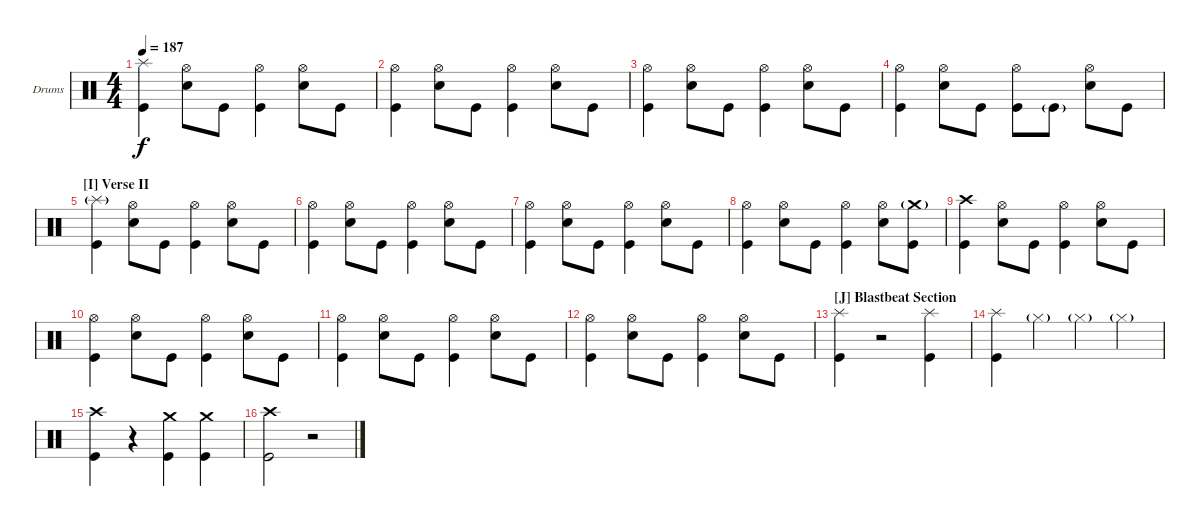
\defaultSystemsLayout 4
\bracketExtendMode groupsimilarinstruments
\firstSystemTrackNameOrientation horizontal
\otherSystemsTrackNameOrientation horizontal
\track ("Drumkit" "Drums") {instrument percussion}
\staff {score}
\articulation defaults
\ts (4 4)
\tempo 187
\clef neutral
\ks c
("Kick (hit)" "Splash (hit)").4{dy f} ("Snare (hit) 2" "Hi-Hat (open)").8 "Kick (hit)".8 ("Kick (hit)" "Hi-Hat (open)").4 ("Snare (hit) 2" "Hi-Hat (open)").8 "Kick (hit)".8 |
("Kick (hit)" "Hi-Hat (open)").4 ("Snare (hit) 2" "Hi-Hat (open)").8 "Kick (hit)".8 ("Kick (hit)" "Hi-Hat (open)").4 ("Snare (hit) 2" "Hi-Hat (open)").8 "Kick (hit)".8 |
("Kick (hit)" "Hi-Hat (open)").4 ("Snare (hit) 2" "Hi-Hat (open)").8 "Kick (hit)".8 ("Kick (hit)" "Hi-Hat (open)").4 ("Snare (hit) 2" "Hi-Hat (open)").8 "Kick (hit)".8 |
("Kick (hit)" "Hi-Hat (open)").4 ("Snare (hit) 2" "Hi-Hat (open)").8 "Kick (hit)".8 ("Kick (hit)" "Hi-Hat (open)").8 "Kick (hit)"{g}.8 ("Snare (hit) 2" "Hi-Hat (open)").8 "Kick (hit)".8 |
\section ("I" "Verse II")
("Kick (hit)" "Splash (hit)"{g}).4 ("Snare (hit) 2" "Hi-Hat (open)").8 "Kick (hit)".8 ("Kick (hit)" "Hi-Hat (open)").4 ("Snare (hit) 2" "Hi-Hat (open)").8 "Kick (hit)".8 |
("Kick (hit)" "Hi-Hat (open)").4 ("Snare (hit) 2" "Hi-Hat (open)").8 "Kick (hit)".8 ("Kick (hit)" "Hi-Hat (open)").4 ("Snare (hit) 2" "Hi-Hat (open)").8 "Kick (hit)".8 |
("Kick (hit)" "Hi-Hat (open)").4 ("Snare (hit) 2" "Hi-Hat (open)").8 "Kick (hit)".8 ("Kick (hit)" "Hi-Hat (open)").4 ("Snare (hit) 2" "Hi-Hat (open)").8 "Kick (hit)".8 |
("Kick (hit)" "Hi-Hat (open)").4 ("Snare (hit) 2" "Hi-Hat (open)").8 "Kick (hit)".8 ("Kick (hit)" "Hi-Hat (open)").4 ("Snare (hit) 2" "Hi-Hat (open)").8 ("Kick (hit)" "Crash medium (hit)"{g}).8 |
("Kick (hit)" "Crash high (hit)").4 ("Snare (hit) 2" "Hi-Hat (open)").8 "Kick (hit)".8 ("Kick (hit)" "Hi-Hat (open)").4 ("Snare (hit) 2" "Hi-Hat (open)").8 "Kick (hit)".8 |
("Kick (hit)" "Hi-Hat (open)").4 ("Snare (hit) 2" "Hi-Hat (open)").8 "Kick (hit)".8 ("Kick (hit)" "Hi-Hat (open)").4 ("Snare (hit) 2" "Hi-Hat (open)").8 "Kick (hit)".8 |
("Kick (hit)" "Hi-Hat (open)").4 ("Snare (hit) 2" "Hi-Hat (open)").8 "Kick (hit)".8 ("Kick (hit)" "Hi-Hat (open)").4 ("Snare (hit) 2" "Hi-Hat (open)").8 "Kick (hit)".8 |
("Kick (hit)" "Hi-Hat (open)").4 ("Snare (hit) 2" "Hi-Hat (open)").8 "Kick (hit)".8 ("Kick (hit)" "Hi-Hat (open)").4 ("Snare (hit) 2" "Hi-Hat (open)").8 "Kick (hit)".8 |
\section ("J" "Blastbeat Section")
("Kick (hit)" "Splash (hit)").4 r.2 ("Kick (hit)" "Splash (hit)").4 |
("Kick (hit)" "Splash (hit)").4 "Hi-Hat (closed)"{g}.4 "Hi-Hat (closed)"{g}.4 "Hi-Hat (closed)"{g}.4 |
("Kick (hit)" "Crash high (hit)").4 r.4 ("Kick (hit)" "Crash medium (hit)").4 ("Kick (hit)" "Crash medium (hit)").4 |
("Kick (hit)" "Crash high (hit)").2 r.2
